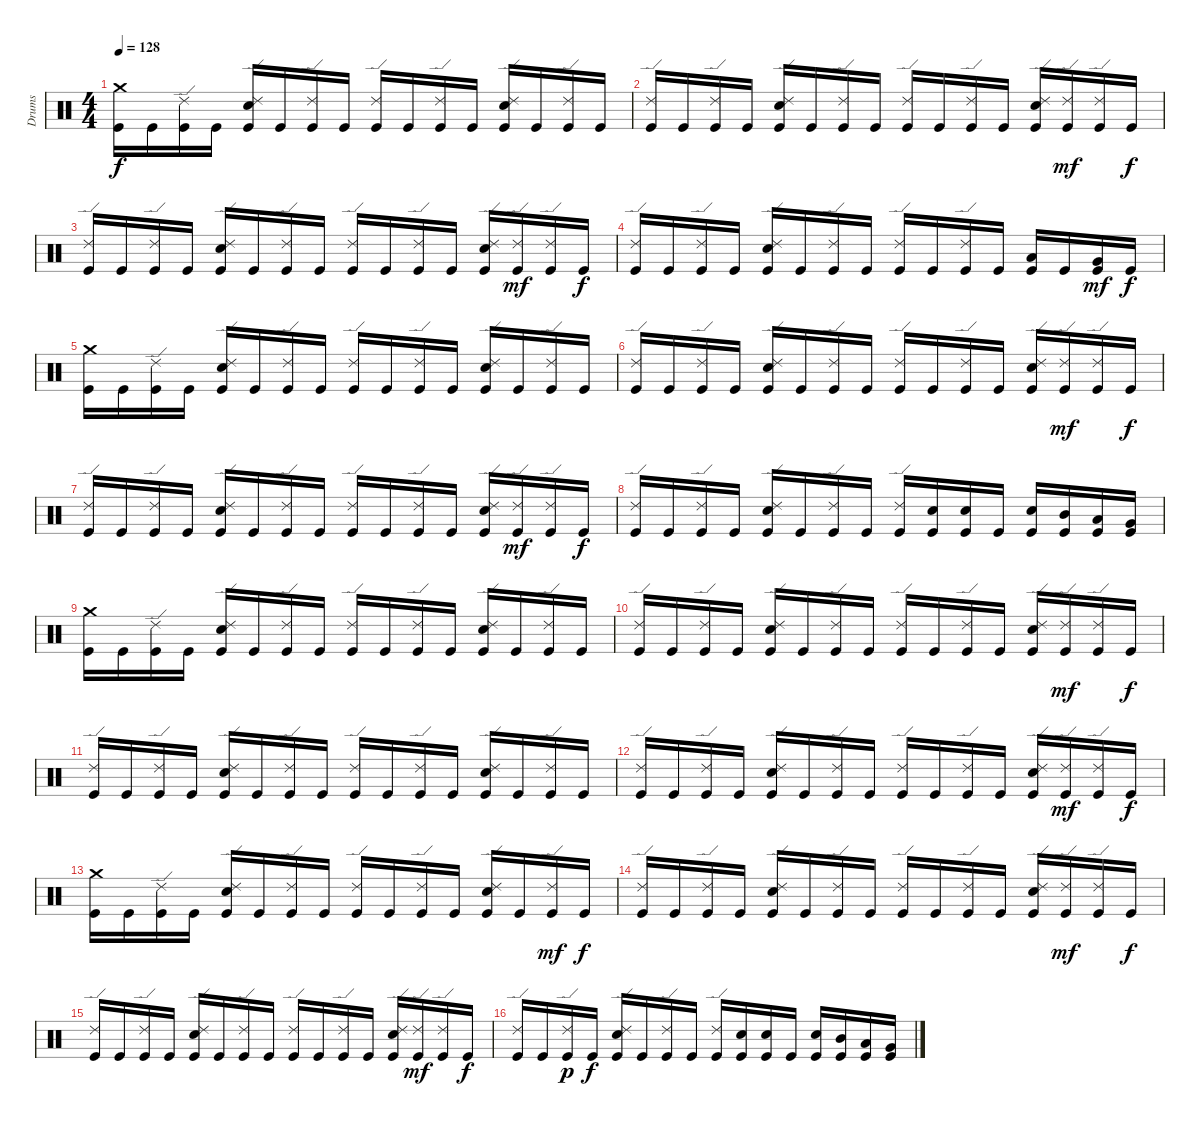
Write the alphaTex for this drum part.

\track ("Drums" "Drums") {instrument percussion}
\staff {score}
\articulation defaults
\ts (4 4)
\tempo 128
\clef neutral
\ks aminor
("Crash medium (hit)" "Kick (hit)").16{dy f} "Kick (hit)".16 ("Ride (edge) 2" "Kick (hit)").16 "Kick (hit)".16 ("Ride (edge) 2" "Electric Snare (hit)" "Kick (hit)").16 "Kick (hit)".16 ("Ride (edge) 2" "Kick (hit)").16 "Kick (hit)".16 ("Ride (edge) 2" "Kick (hit)").16 "Kick (hit)".16 ("Ride (edge) 2" "Kick (hit)").16 "Kick (hit)".16 ("Ride (edge) 2" "Electric Snare (hit)" "Kick (hit)").16 "Kick (hit)".16 ("Ride (edge) 2" "Kick (hit)").16 "Kick (hit)".16 |
("Ride (edge) 2" "Kick (hit)").16 "Kick (hit)".16 ("Ride (edge) 2" "Kick (hit)").16 "Kick (hit)".16 ("Ride (edge) 2" "Electric Snare (hit)" "Kick (hit)").16 "Kick (hit)".16 ("Ride (edge) 2" "Kick (hit)").16 "Kick (hit)".16 ("Ride (edge) 2" "Kick (hit)").16 "Kick (hit)".16 ("Ride (edge) 2" "Kick (hit)").16 "Kick (hit)".16 ("Ride (edge) 2" "Electric Snare (hit)" "Kick (hit)").16 ("Ride (edge) 2" "Kick (hit)").16{dy mf} ("Ride (edge) 2" "Kick (hit)").16 "Kick (hit)".16{dy f} |
("Ride (edge) 2" "Kick (hit)").16 "Kick (hit)".16 ("Ride (edge) 2" "Kick (hit)").16 "Kick (hit)".16 ("Ride (edge) 2" "Electric Snare (hit)" "Kick (hit)").16 "Kick (hit)".16 ("Ride (edge) 2" "Kick (hit)").16 "Kick (hit)".16 ("Ride (edge) 2" "Kick (hit)").16 "Kick (hit)".16 ("Ride (edge) 2" "Kick (hit)").16 "Kick (hit)".16 ("Ride (edge) 2" "Electric Snare (hit)" "Kick (hit)").16 ("Ride (edge) 2" "Kick (hit)").16{dy mf} ("Ride (edge) 2" "Kick (hit)").16 "Kick (hit)".16{dy f} |
("Ride (edge) 2" "Kick (hit)").16 "Kick (hit)".16 ("Ride (edge) 2" "Kick (hit)").16 "Kick (hit)".16 ("Ride (edge) 2" "Electric Snare (hit)" "Kick (hit)").16 "Kick (hit)".16 ("Ride (edge) 2" "Kick (hit)").16 "Kick (hit)".16 ("Ride (edge) 2" "Kick (hit)").16 "Kick (hit)".16 ("Ride (edge) 2" "Kick (hit)").16 "Kick (hit)".16 ("Low Tom (hit)" "Kick (hit)").16 "Kick (hit)".16 ("Very Low Tom (hit)" "Kick (hit)").16{dy mf} "Kick (hit)".16{dy f} |
("Crash medium (hit)" "Kick (hit)").16 "Kick (hit)".16 ("Ride (edge) 2" "Kick (hit)").16 "Kick (hit)".16 ("Ride (edge) 2" "Electric Snare (hit)" "Kick (hit)").16 "Kick (hit)".16 ("Ride (edge) 2" "Kick (hit)").16 "Kick (hit)".16 ("Ride (edge) 2" "Kick (hit)").16 "Kick (hit)".16 ("Ride (edge) 2" "Kick (hit)").16 "Kick (hit)".16 ("Ride (edge) 2" "Electric Snare (hit)" "Kick (hit)").16 "Kick (hit)".16 ("Ride (edge) 2" "Kick (hit)").16 "Kick (hit)".16 |
("Ride (edge) 2" "Kick (hit)").16 "Kick (hit)".16 ("Ride (edge) 2" "Kick (hit)").16 "Kick (hit)".16 ("Ride (edge) 2" "Electric Snare (hit)" "Kick (hit)").16 "Kick (hit)".16 ("Ride (edge) 2" "Kick (hit)").16 "Kick (hit)".16 ("Ride (edge) 2" "Kick (hit)").16 "Kick (hit)".16 ("Ride (edge) 2" "Kick (hit)").16 "Kick (hit)".16 ("Ride (edge) 2" "Electric Snare (hit)" "Kick (hit)").16 ("Ride (edge) 2" "Kick (hit)").16{dy mf} ("Ride (edge) 2" "Kick (hit)").16 "Kick (hit)".16{dy f} |
("Ride (edge) 2" "Kick (hit)").16 "Kick (hit)".16 ("Ride (edge) 2" "Kick (hit)").16 "Kick (hit)".16 ("Ride (edge) 2" "Electric Snare (hit)" "Kick (hit)").16 "Kick (hit)".16 ("Ride (edge) 2" "Kick (hit)").16 "Kick (hit)".16 ("Ride (edge) 2" "Kick (hit)").16 "Kick (hit)".16 ("Ride (edge) 2" "Kick (hit)").16 "Kick (hit)".16 ("Ride (edge) 2" "Electric Snare (hit)" "Kick (hit)").16 ("Ride (edge) 2" "Kick (hit)").16{dy mf} ("Ride (edge) 2" "Kick (hit)").16 "Kick (hit)".16{dy f} |
("Ride (edge) 2" "Kick (hit)").16 "Kick (hit)".16 ("Ride (edge) 2" "Kick (hit)").16 "Kick (hit)".16 ("Ride (edge) 2" "Electric Snare (hit)" "Kick (hit)").16 "Kick (hit)".16 ("Ride (edge) 2" "Kick (hit)").16 "Kick (hit)".16 ("Ride (edge) 2" "Kick (hit)").16 ("Electric Snare (hit)" "Kick (hit)").16 ("Electric Snare (hit)" "Kick (hit)").16 "Kick (hit)".16 ("Snare (hit) 2" "Kick (hit)").16 ("Mid Tom (hit)" "Kick (hit)").16 ("Low Tom (hit)" "Kick (hit)").16 ("Very Low Tom (hit)" "Kick (hit)").16 |
("Crash medium (hit)" "Kick (hit)").16 "Kick (hit)".16 ("Ride (edge) 2" "Kick (hit)").16 "Kick (hit)".16 ("Ride (edge) 2" "Electric Snare (hit)" "Kick (hit)").16 "Kick (hit)".16 ("Ride (edge) 2" "Kick (hit)").16 "Kick (hit)".16 ("Ride (edge) 2" "Kick (hit)").16 "Kick (hit)".16 ("Ride (edge) 2" "Kick (hit)").16 "Kick (hit)".16 ("Ride (edge) 2" "Electric Snare (hit)" "Kick (hit)").16 "Kick (hit)".16 ("Ride (edge) 2" "Kick (hit)").16 "Kick (hit)".16 |
("Ride (edge) 2" "Kick (hit)").16 "Kick (hit)".16 ("Ride (edge) 2" "Kick (hit)").16 "Kick (hit)".16 ("Ride (edge) 2" "Electric Snare (hit)" "Kick (hit)").16 "Kick (hit)".16 ("Ride (edge) 2" "Kick (hit)").16 "Kick (hit)".16 ("Ride (edge) 2" "Kick (hit)").16 "Kick (hit)".16 ("Ride (edge) 2" "Kick (hit)").16 "Kick (hit)".16 ("Ride (edge) 2" "Electric Snare (hit)" "Kick (hit)").16 ("Ride (edge) 2" "Kick (hit)").16{dy mf} ("Ride (edge) 2" "Kick (hit)").16 "Kick (hit)".16{dy f} |
("Ride (edge) 2" "Kick (hit)").16 "Kick (hit)".16 ("Ride (edge) 2" "Kick (hit)").16 "Kick (hit)".16 ("Ride (edge) 2" "Electric Snare (hit)" "Kick (hit)").16 "Kick (hit)".16 ("Ride (edge) 2" "Kick (hit)").16 "Kick (hit)".16 ("Ride (edge) 2" "Kick (hit)").16 "Kick (hit)".16 ("Ride (edge) 2" "Kick (hit)").16 "Kick (hit)".16 ("Ride (edge) 2" "Electric Snare (hit)" "Kick (hit)").16 "Kick (hit)".16 ("Ride (edge) 2" "Kick (hit)").16 "Kick (hit)".16 |
("Ride (edge) 2" "Kick (hit)").16 "Kick (hit)".16 ("Ride (edge) 2" "Kick (hit)").16 "Kick (hit)".16 ("Ride (edge) 2" "Electric Snare (hit)" "Kick (hit)").16 "Kick (hit)".16 ("Ride (edge) 2" "Kick (hit)").16 "Kick (hit)".16 ("Ride (edge) 2" "Kick (hit)").16 "Kick (hit)".16 ("Ride (edge) 2" "Kick (hit)").16 "Kick (hit)".16 ("Ride (edge) 2" "Electric Snare (hit)" "Kick (hit)").16 ("Ride (edge) 2" "Kick (hit)").16{dy mf} ("Ride (edge) 2" "Kick (hit)").16 "Kick (hit)".16{dy f} |
("Crash medium (hit)" "Kick (hit)").16 "Kick (hit)".16 ("Ride (edge) 2" "Kick (hit)").16 "Kick (hit)".16 ("Ride (edge) 2" "Electric Snare (hit)" "Kick (hit)").16 "Kick (hit)".16 ("Ride (edge) 2" "Kick (hit)").16 "Kick (hit)".16 ("Ride (edge) 2" "Kick (hit)").16 "Kick (hit)".16 ("Ride (edge) 2" "Kick (hit)").16 "Kick (hit)".16 ("Ride (edge) 2" "Electric Snare (hit)" "Kick (hit)").16 "Kick (hit)".16 ("Ride (edge) 2" "Kick (hit)").16{dy mf} "Kick (hit)".16{dy f} |
("Ride (edge) 2" "Kick (hit)").16 "Kick (hit)".16 ("Ride (edge) 2" "Kick (hit)").16 "Kick (hit)".16 ("Ride (edge) 2" "Electric Snare (hit)" "Kick (hit)").16 "Kick (hit)".16 ("Ride (edge) 2" "Kick (hit)").16 "Kick (hit)".16 ("Ride (edge) 2" "Kick (hit)").16 "Kick (hit)".16 ("Ride (edge) 2" "Kick (hit)").16 "Kick (hit)".16 ("Ride (edge) 2" "Electric Snare (hit)" "Kick (hit)").16 ("Ride (edge) 2" "Kick (hit)").16{dy mf} ("Ride (edge) 2" "Kick (hit)").16 "Kick (hit)".16{dy f} |
("Ride (edge) 2" "Kick (hit)").16 "Kick (hit)".16 ("Ride (edge) 2" "Kick (hit)").16 "Kick (hit)".16 ("Ride (edge) 2" "Electric Snare (hit)" "Kick (hit)").16 "Kick (hit)".16 ("Ride (edge) 2" "Kick (hit)").16 "Kick (hit)".16 ("Ride (edge) 2" "Kick (hit)").16 "Kick (hit)".16 ("Ride (edge) 2" "Kick (hit)").16 "Kick (hit)".16 ("Ride (edge) 2" "Electric Snare (hit)" "Kick (hit)").16 ("Ride (edge) 2" "Kick (hit)").16{dy mf} ("Ride (edge) 2" "Kick (hit)").16 "Kick (hit)".16{dy f} |
("Ride (edge) 2" "Kick (hit)").16 "Kick (hit)".16 ("Ride (edge) 2" "Kick (hit)").16{dy p} "Kick (hit)".16{dy f} ("Ride (edge) 2" "Electric Snare (hit)" "Kick (hit)").16 "Kick (hit)".16 ("Ride (edge) 2" "Kick (hit)").16 "Kick (hit)".16 ("Ride (edge) 2" "Kick (hit)").16 ("Electric Snare (hit)" "Kick (hit)").16 ("Electric Snare (hit)" "Kick (hit)").16 "Kick (hit)".16 ("Electric Snare (hit)" "Kick (hit)").16 ("Mid Tom (hit)" "Kick (hit)").16 ("Low Tom (hit)" "Kick (hit)").16 ("Very Low Tom (hit)" "Kick (hit)").16
